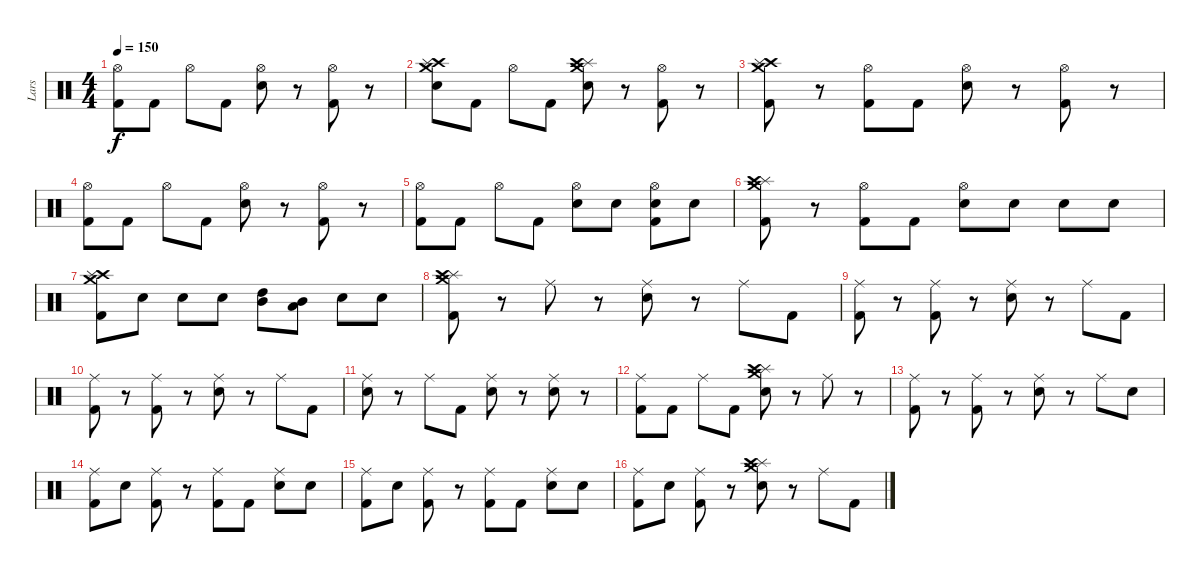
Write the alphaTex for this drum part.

\track ("Lars" "Lars") {instrument percussion}
\staff {score}
\articulation defaults
\ts (4 4)
\tempo 150
\clef neutral
\ks c
("Hi-Hat (open)" "Kick (hit) 2").8{dy f} "Kick (hit) 2".8 "Hi-Hat (open)".8 "Kick (hit) 2".8 ("Hi-Hat (open)" "Snare (hit) 2").8 r.8 ("Hi-Hat (open)" "Kick (hit) 2").8 r.8 |
("Crash medium (hit)" "Crash high (hit)" "Splash (hit)" "Snare (hit) 2").8 "Kick (hit) 2".8 "Hi-Hat (open)".8 "Kick (hit) 2".8 ("Crash medium (hit)" "Splash (hit)" "Crash high (hit)" "Snare (hit) 2").8 r.8 ("Hi-Hat (open)" "Kick (hit) 2").8 r.8 |
("Crash high (hit)" "Splash (hit)" "Crash medium (hit)" "Kick (hit) 2").8 r.8 ("Hi-Hat (open)" "Kick (hit) 2").8 "Kick (hit) 2".8 ("Hi-Hat (open)" "Snare (hit) 2").8 r.8 ("Hi-Hat (open)" "Kick (hit) 2").8 r.8 |
("Hi-Hat (open)" "Kick (hit) 2").8 "Kick (hit) 2".8 "Hi-Hat (open)".8 "Kick (hit) 2".8 ("Hi-Hat (open)" "Snare (hit) 2").8 r.8 ("Hi-Hat (open)" "Kick (hit) 2").8 r.8 |
("Hi-Hat (open)" "Kick (hit) 2").8 "Kick (hit) 2".8 "Hi-Hat (open)".8 "Kick (hit) 2".8 ("Hi-Hat (open)" "Snare (hit) 2").8 "Snare (hit) 2".8 ("Snare (hit) 2" "Hi-Hat (open)" "Kick (hit) 2").8 "Snare (hit) 2".8 |
("Splash (hit)" "Crash medium (hit)" "Crash high (hit)" "Kick (hit) 2").8 r.8 ("Hi-Hat (open)" "Kick (hit) 2").8 "Kick (hit) 2".8 ("Hi-Hat (open)" "Snare (hit) 2").8 "Snare (hit) 2".8 "Snare (hit) 2".8 "Snare (hit) 2".8 |
("Crash high (hit)" "Splash (hit)" "Crash medium (hit)" "Kick (hit) 2").8 "Snare (hit) 2".8 "Snare (hit) 2".8 "Snare (hit) 2".8 ("Mid Tom (hit)" "High Tom (hit)").8 ("Low Tom (hit)" "Mid Tom (hit)").8 "Snare (hit) 2".8 "Snare (hit) 2".8 |
("Splash (hit)" "Crash medium (hit)" "Crash high (hit)" "Kick (hit) 2").8 r.8 "Ride (middle)".8 r.8 ("Ride (middle)" "Snare (hit) 2").8 r.8 "Ride (middle)".8 "Kick (hit) 2".8 |
("Ride (middle)" "Kick (hit) 2").8 r.8 ("Ride (middle)" "Kick (hit) 2").8 r.8 ("Ride (middle)" "Snare (hit) 2").8 r.8 "Ride (middle)".8 "Kick (hit) 2".8 |
("Ride (middle)" "Kick (hit) 2").8 r.8 ("Ride (middle)" "Kick (hit) 2").8 r.8 ("Ride (middle)" "Snare (hit) 2").8 r.8 "Ride (middle)".8 "Kick (hit) 2".8 |
("Ride (middle)" "Snare (hit) 2").8 r.8 "Ride (middle)".8 "Kick (hit) 2".8 ("Ride (middle)" "Snare (hit) 2").8 r.8 ("Ride (middle)" "Snare (hit) 2").8 r.8 |
("Ride (middle)" "Kick (hit) 2").8 "Kick (hit) 2".8 "Ride (middle)".8 "Kick (hit) 2".8 ("Crash medium (hit)" "Splash (hit)" "Crash high (hit)" "Snare (hit) 2").8 r.8 "Ride (middle)".8 r.8 |
("Ride (middle)" "Kick (hit) 2").8 r.8 ("Ride (middle)" "Kick (hit) 2").8 r.8 ("Ride (middle)" "Snare (hit) 2").8 r.8 "Ride (middle)".8 "Snare (hit) 2".8 |
("Kick (hit) 2" "Ride (middle)").8 "Snare (hit) 2".8 ("Kick (hit) 2" "Ride (middle)").8 r.8 ("Kick (hit) 2" "Ride (middle)").8 "Kick (hit) 2".8 ("Snare (hit) 2" "Ride (middle)").8 "Snare (hit) 2".8 |
("Kick (hit) 2" "Ride (middle)").8 "Snare (hit) 2".8 ("Kick (hit) 2" "Ride (middle)").8 r.8 ("Kick (hit) 2" "Ride (middle)").8 "Kick (hit) 2".8 ("Snare (hit) 2" "Ride (middle)").8 "Snare (hit) 2".8 |
("Ride (middle)" "Kick (hit) 2").8 "Snare (hit) 2".8 ("Ride (middle)" "Kick (hit) 2").8 r.8 ("Crash medium (hit)" "Splash (hit)" "Crash high (hit)" "Snare (hit) 2").8 r.8 "Ride (middle)".8 "Kick (hit) 2".8
